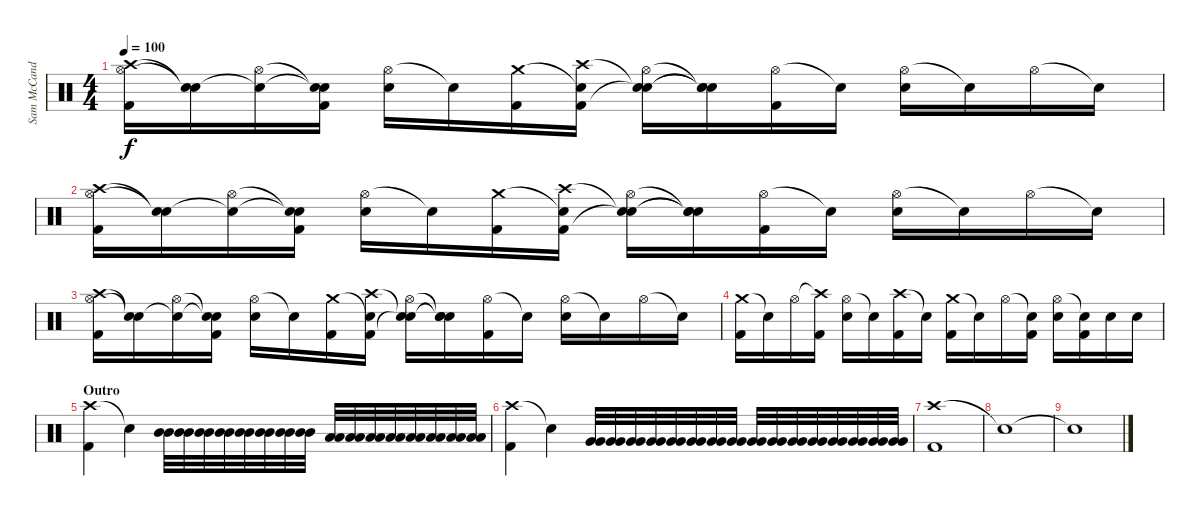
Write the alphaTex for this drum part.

\track ("Sam McCandless (Drums)" "Sam McCand") {instrument percussion}
\staff {score}
\articulation defaults
\ts (4 4)
\tempo 100
\clef neutral
\ks c
("Hi-Hat (open)" "Crash high (hit)" "Kick (hit) 2").16{dy f} ("Snare (hit)"{t} "Snare (hit)"{t}).16 ("Hi-Hat (open)" "Snare (hit)"{t}).16 ("Snare (hit)"{t} "Snare (hit)"{t} "Kick (hit) 2").16 ("Hi-Hat (open)" "Electric Snare (hit)").16 "Snare (hit)"{t}.16 ("Crash medium (hit)" "Kick (hit) 2").16 ("Snare (hit)"{t} "Crash high (hit)" "Kick (hit) 2").16 ("Hi-Hat (open)" "Snare (hit)"{t} "Snare (hit)"{t}).16 ("Snare (hit)"{t} "Snare (hit)"{t} "Snare (hit)"{t}).16 ("Hi-Hat (open)" "Kick (hit) 2").16 "Snare (hit)"{t}.16 ("Hi-Hat (open)" "Electric Snare (hit)").16 "Snare (hit)"{t}.16 "Hi-Hat (open)".16 "Snare (hit)"{t}.16 |
("Hi-Hat (open)" "Crash high (hit)" "Kick (hit) 2").16 ("Snare (hit)"{t} "Snare (hit)"{t}).16 ("Hi-Hat (open)" "Snare (hit)"{t}).16 ("Snare (hit)"{t} "Snare (hit)"{t} "Kick (hit) 2").16 ("Hi-Hat (open)" "Electric Snare (hit)").16 "Snare (hit)"{t}.16 ("Crash medium (hit)" "Kick (hit) 2").16 ("Snare (hit)"{t} "Crash high (hit)" "Kick (hit) 2").16 ("Hi-Hat (open)" "Snare (hit)"{t} "Snare (hit)"{t}).16 ("Snare (hit)"{t} "Snare (hit)"{t} "Snare (hit)"{t}).16 ("Hi-Hat (open)" "Kick (hit) 2").16 "Snare (hit)"{t}.16 ("Hi-Hat (open)" "Electric Snare (hit)").16 "Snare (hit)"{t}.16 "Hi-Hat (open)".16 "Snare (hit)"{t}.16 |
("Hi-Hat (open)" "Crash high (hit)" "Kick (hit) 2").16 ("Snare (hit)"{t} "Snare (hit)"{t}).16 ("Hi-Hat (open)" "Snare (hit)"{t}).16 ("Snare (hit)"{t} "Snare (hit)"{t} "Kick (hit) 2").16 ("Hi-Hat (open)" "Electric Snare (hit)").16 "Snare (hit)"{t}.16 ("Crash medium (hit)" "Kick (hit) 2").16 ("Snare (hit)"{t} "Crash high (hit)" "Kick (hit) 2").16 ("Hi-Hat (open)" "Snare (hit)"{t} "Snare (hit)"{t}).16 ("Snare (hit)"{t} "Snare (hit)"{t} "Snare (hit)"{t}).16 ("Hi-Hat (open)" "Kick (hit) 2").16 "Snare (hit)"{t}.16 ("Hi-Hat (open)" "Electric Snare (hit)").16 "Snare (hit)"{t}.16 "Hi-Hat (open)".16 "Snare (hit)"{t}.16 |
("Crash medium (hit)" "Kick (hit) 2").16 "Snare (hit)"{t}.16 "Hi-Hat (open)".16 ("Crash high (hit)"{t} "Kick (hit) 2").16 ("Hi-Hat (open)" "Electric Snare (hit)").16 "Snare (hit)"{t}.16 ("Crash high (hit)" "Kick (hit) 2").16 "Snare (hit)"{t}.16 ("Crash medium (hit)" "Kick (hit) 2").16 "Snare (hit)"{t}.16 "Hi-Hat (open)".16 ("Snare (hit)"{t} "Kick (hit) 2").16 ("Hi-Hat (open)" "Electric Snare (hit)").16 ("Snare (hit)"{t} "Kick (hit) 2").16 "Electric Snare (hit)".16 "Electric Snare (hit)".16 |
\section ("" "Outro")
("Crash high (hit)" "Kick (hit) 2").4 "Snare (hit)"{t}.4 ("Mid Tom (hit)" "Mid Tom (hit)").32 ("Mid Tom (hit)" "Mid Tom (hit)").32 ("Mid Tom (hit)" "Mid Tom (hit)").32 ("Mid Tom (hit)" "Mid Tom (hit)").32 ("Mid Tom (hit)" "Mid Tom (hit)").32 ("Mid Tom (hit)" "Mid Tom (hit)").32 ("Mid Tom (hit)" "Mid Tom (hit)").32 ("Mid Tom (hit)" "Mid Tom (hit)").32 ("Low Tom (hit)" "Low Tom (hit)").32 ("Low Tom (hit)" "Low Tom (hit)").32 ("Low Tom (hit)" "Low Tom (hit)").32 ("Low Tom (hit)" "Low Tom (hit)").32 ("Low Tom (hit)" "Low Tom (hit)").32 ("Low Tom (hit)" "Low Tom (hit)").32 ("Low Tom (hit)" "Low Tom (hit)").32 ("Low Tom (hit)" "Low Tom (hit)").32 |
("Crash high (hit)" "Kick (hit) 2").4 "Snare (hit)"{t}.4 ("Very Low Tom (hit)" "Very Low Tom (hit)").32 ("Very Low Tom (hit)" "Very Low Tom (hit)").32 ("Very Low Tom (hit)" "Very Low Tom (hit)").32 ("Very Low Tom (hit)" "Very Low Tom (hit)").32 ("Very Low Tom (hit)" "Very Low Tom (hit)").32 ("Very Low Tom (hit)" "Very Low Tom (hit)").32 ("Very Low Tom (hit)" "Very Low Tom (hit)").32 ("Very Low Tom (hit)" "Very Low Tom (hit)").32 ("Very Low Tom (hit)" "Very Low Tom (hit)").32 ("Very Low Tom (hit)" "Very Low Tom (hit)").32 ("Very Low Tom (hit)" "Very Low Tom (hit)").32 ("Very Low Tom (hit)" "Very Low Tom (hit)").32 ("Very Low Tom (hit)" "Very Low Tom (hit)").32 ("Very Low Tom (hit)" "Very Low Tom (hit)").32 ("Very Low Tom (hit)" "Very Low Tom (hit)").32 ("Very Low Tom (hit)" "Very Low Tom (hit)").32 |
("Crash high (hit)" "Kick (hit) 2").1 |
"Snare (hit)"{t}.1 |
"Snare (hit)"{t}.1
